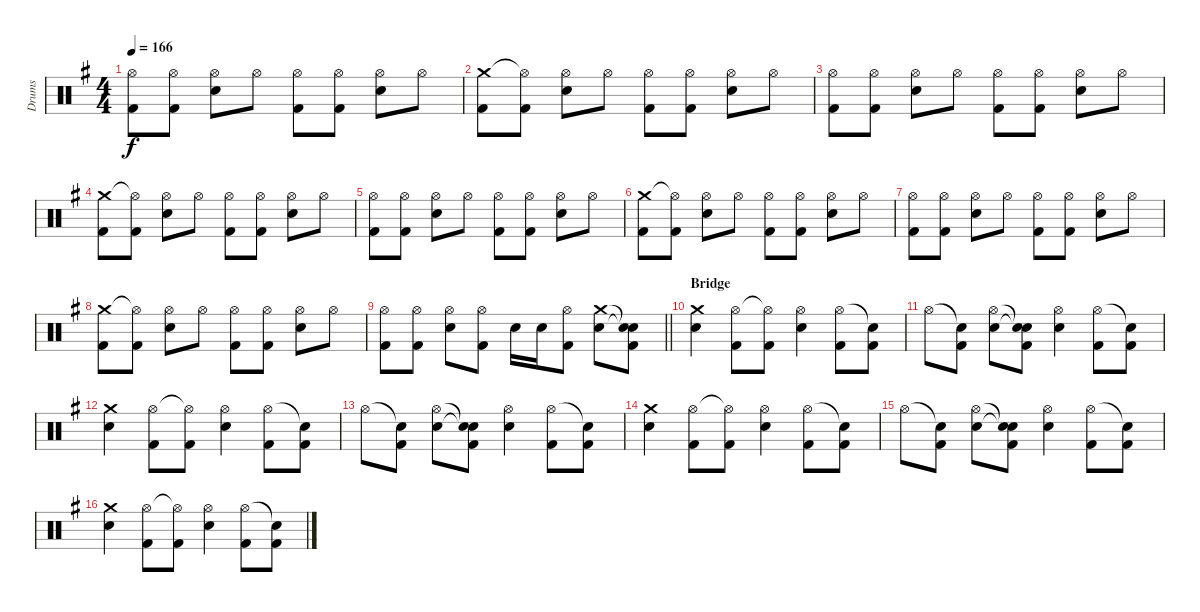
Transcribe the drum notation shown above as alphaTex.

\track ("Drums" "Drums") {instrument percussion}
\staff {score}
\articulation defaults
\ts (4 4)
\tempo 166
\clef neutral
\ks g
("Hi-Hat (open)" "Kick (hit) 2").8{dy f} ("Hi-Hat (open)" "Kick (hit) 2").8 ("Hi-Hat (open)" "Electric Snare (hit)").8 "Hi-Hat (open)".8 ("Hi-Hat (open)" "Kick (hit) 2").8 ("Hi-Hat (open)" "Kick (hit) 2").8 ("Hi-Hat (open)" "Electric Snare (hit)").8 "Hi-Hat (open)".8 |
("Crash medium (hit)" "Kick (hit) 2").8 ("Hi-Hat (open)"{t} "Kick (hit) 2").8 ("Hi-Hat (open)" "Electric Snare (hit)").8 "Hi-Hat (open)".8 ("Hi-Hat (open)" "Kick (hit) 2").8 ("Hi-Hat (open)" "Kick (hit) 2").8 ("Hi-Hat (open)" "Electric Snare (hit)").8 "Hi-Hat (open)".8 |
("Hi-Hat (open)" "Kick (hit) 2").8 ("Hi-Hat (open)" "Kick (hit) 2").8 ("Hi-Hat (open)" "Electric Snare (hit)").8 "Hi-Hat (open)".8 ("Hi-Hat (open)" "Kick (hit) 2").8 ("Hi-Hat (open)" "Kick (hit) 2").8 ("Hi-Hat (open)" "Electric Snare (hit)").8 "Hi-Hat (open)".8 |
("Crash medium (hit)" "Kick (hit) 2").8 ("Hi-Hat (open)"{t} "Kick (hit) 2").8 ("Hi-Hat (open)" "Electric Snare (hit)").8 "Hi-Hat (open)".8 ("Hi-Hat (open)" "Kick (hit) 2").8 ("Hi-Hat (open)" "Kick (hit) 2").8 ("Hi-Hat (open)" "Electric Snare (hit)").8 "Hi-Hat (open)".8 |
("Hi-Hat (open)" "Kick (hit) 2").8 ("Hi-Hat (open)" "Kick (hit) 2").8 ("Hi-Hat (open)" "Electric Snare (hit)").8 "Hi-Hat (open)".8 ("Hi-Hat (open)" "Kick (hit) 2").8 ("Hi-Hat (open)" "Kick (hit) 2").8 ("Hi-Hat (open)" "Electric Snare (hit)").8 "Hi-Hat (open)".8 |
("Crash medium (hit)" "Kick (hit) 2").8 ("Hi-Hat (open)"{t} "Kick (hit) 2").8 ("Hi-Hat (open)" "Electric Snare (hit)").8 "Hi-Hat (open)".8 ("Hi-Hat (open)" "Kick (hit) 2").8 ("Hi-Hat (open)" "Kick (hit) 2").8 ("Hi-Hat (open)" "Electric Snare (hit)").8 "Hi-Hat (open)".8 |
("Hi-Hat (open)" "Kick (hit) 2").8 ("Hi-Hat (open)" "Kick (hit) 2").8 ("Hi-Hat (open)" "Electric Snare (hit)").8 "Hi-Hat (open)".8 ("Hi-Hat (open)" "Kick (hit) 2").8 ("Hi-Hat (open)" "Kick (hit) 2").8 ("Hi-Hat (open)" "Electric Snare (hit)").8 "Hi-Hat (open)".8 |
("Crash medium (hit)" "Kick (hit) 2").8 ("Hi-Hat (open)"{t} "Kick (hit) 2").8 ("Hi-Hat (open)" "Electric Snare (hit)").8 "Hi-Hat (open)".8 ("Hi-Hat (open)" "Kick (hit) 2").8 ("Hi-Hat (open)" "Kick (hit) 2").8 ("Hi-Hat (open)" "Electric Snare (hit)").8 "Hi-Hat (open)".8 |
\barLineRight lightlight
("Hi-Hat (open)" "Kick (hit) 2").8 ("Hi-Hat (open)" "Kick (hit) 2").8 ("Hi-Hat (open)" "Electric Snare (hit)").8 ("Hi-Hat (open)" "Kick (hit) 2").8 "Electric Snare (hit)".16 "Electric Snare (hit)".16 ("Hi-Hat (open)" "Kick (hit) 2").8 ("Crash medium (hit)" "Electric Snare (hit)").8 ("Snare (hit)"{t} "Snare (hit)"{t} "Kick (hit) 2").8 |
\section ("" "Bridge")
("Crash medium (hit)" "Electric Snare (hit)").4 ("Hi-Hat (open)" "Kick (hit) 2").8 ("Hi-Hat (open)"{t} "Kick (hit) 2").8 ("Hi-Hat (open)" "Electric Snare (hit)").4 ("Hi-Hat (open)" "Kick (hit) 2").8 ("Snare (hit)"{t} "Kick (hit) 2").8 |
"Hi-Hat (open)".8 ("Snare (hit)"{t} "Kick (hit) 2").8 ("Hi-Hat (open)" "Electric Snare (hit)").8 ("Snare (hit)"{t} "Snare (hit)"{t} "Kick (hit) 2").8 ("Hi-Hat (open)" "Electric Snare (hit)").4 ("Hi-Hat (open)" "Kick (hit) 2").8 ("Snare (hit)"{t} "Kick (hit) 2").8 |
("Crash medium (hit)" "Electric Snare (hit)").4 ("Hi-Hat (open)" "Kick (hit) 2").8 ("Hi-Hat (open)"{t} "Kick (hit) 2").8 ("Hi-Hat (open)" "Electric Snare (hit)").4 ("Hi-Hat (open)" "Kick (hit) 2").8 ("Snare (hit)"{t} "Kick (hit) 2").8 |
"Hi-Hat (open)".8 ("Snare (hit)"{t} "Kick (hit) 2").8 ("Hi-Hat (open)" "Electric Snare (hit)").8 ("Snare (hit)"{t} "Snare (hit)"{t} "Kick (hit) 2").8 ("Hi-Hat (open)" "Electric Snare (hit)").4 ("Hi-Hat (open)" "Kick (hit) 2").8 ("Snare (hit)"{t} "Kick (hit) 2").8 |
("Crash medium (hit)" "Electric Snare (hit)").4 ("Hi-Hat (open)" "Kick (hit) 2").8 ("Hi-Hat (open)"{t} "Kick (hit) 2").8 ("Hi-Hat (open)" "Electric Snare (hit)").4 ("Hi-Hat (open)" "Kick (hit) 2").8 ("Snare (hit)"{t} "Kick (hit) 2").8 |
"Hi-Hat (open)".8 ("Snare (hit)"{t} "Kick (hit) 2").8 ("Hi-Hat (open)" "Electric Snare (hit)").8 ("Snare (hit)"{t} "Snare (hit)"{t} "Kick (hit) 2").8 ("Hi-Hat (open)" "Electric Snare (hit)").4 ("Hi-Hat (open)" "Kick (hit) 2").8 ("Snare (hit)"{t} "Kick (hit) 2").8 |
("Crash medium (hit)" "Electric Snare (hit)").4 ("Hi-Hat (open)" "Kick (hit) 2").8 ("Hi-Hat (open)"{t} "Kick (hit) 2").8 ("Hi-Hat (open)" "Electric Snare (hit)").4 ("Hi-Hat (open)" "Kick (hit) 2").8 ("Snare (hit)"{t} "Kick (hit) 2").8
